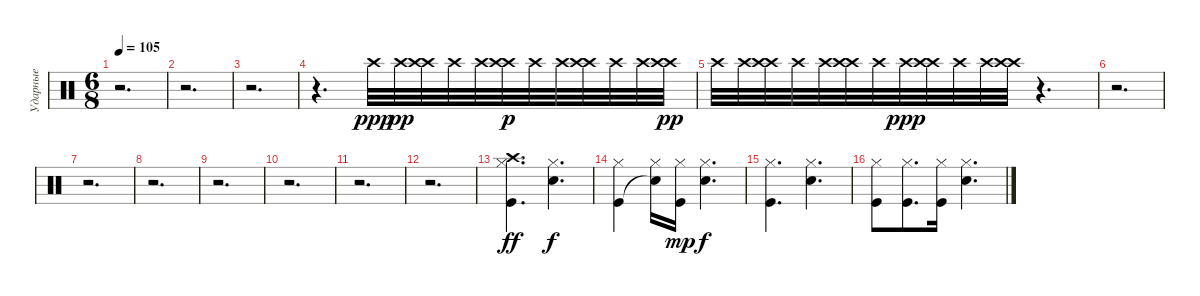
\track ("Ударные" "Ударные") {instrument percussion}
\staff {score}
\articulation defaults
\ts (6 8)
\tempo 105
\clef neutral
\ks c
r.2{d dy ppp} |
r.2{d} |
r.2{d} |
r.4{d} "Crash high (hit)".32 "Crash high (hit)".32{dy pp} ("Crash high (hit)" "Crash high (hit)").32 "Crash high (hit)".32 "Crash high (hit)".32 ("Crash high (hit)" "Crash high (hit)").32{dy p} "Crash high (hit)".32 "Crash high (hit)".32 ("Crash high (hit)" "Crash high (hit)").32 "Crash high (hit)".32 "Crash high (hit)".32 ("Crash high (hit)" "Crash high (hit)").32{dy pp} |
"Crash high (hit)".32 "Crash high (hit)".32 ("Crash high (hit)" "Crash high (hit)").32 "Crash high (hit)".32 "Crash high (hit)".32 ("Crash high (hit)" "Crash high (hit)").32 "Crash high (hit)".32 "Crash high (hit)".32{dy ppp} ("Crash high (hit)" "Crash high (hit)").32 "Crash high (hit)".32 "Crash high (hit)".32 ("Crash high (hit)" "Crash high (hit)").32 r.4{d} |
r.2{d} |
r.2{d} |
r.2{d} |
r.2{d} |
r.2{d} |
r.2{d} |
r.2{d} |
("Crash high (hit)" "Kick (hit)" "Hi-Hat (closed)").4{d dy ff} ("Electric Snare (hit)" "Hi-Hat (closed)").4{d dy f} |
("Kick (hit)" "Hi-Hat (closed)").4 ("Snare (hit)"{t} "Hi-Hat (closed)").16 ("Kick (hit)" "Hi-Hat (closed)").16{dy mp} ("Electric Snare (hit)" "Hi-Hat (closed)").4{d dy f} |
("Kick (hit)" "Hi-Hat (closed)").4{d} ("Electric Snare (hit)" "Hi-Hat (closed)").4{d} |
("Kick (hit)" "Hi-Hat (closed)").8 ("Kick (hit)" "Hi-Hat (closed)").8{d} ("Kick (hit)" "Hi-Hat (closed)").16 ("Electric Snare (hit)" "Hi-Hat (closed)").4{d}
